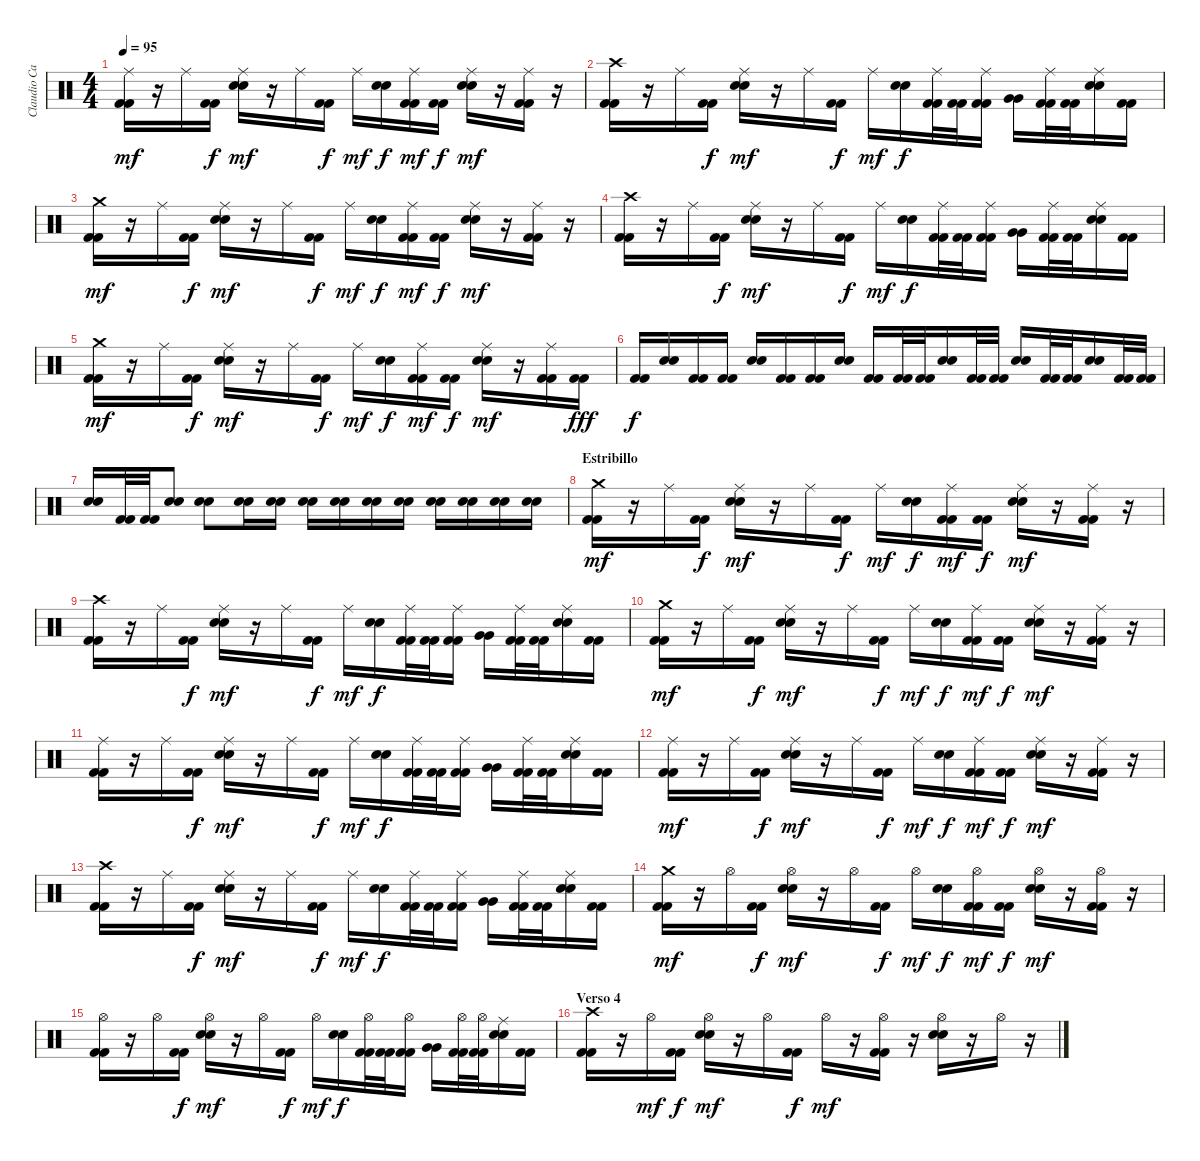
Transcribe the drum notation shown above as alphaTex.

\track ("Claudio Cardaci (bateria)" "Claudio Ca") {instrument percussion}
\staff {score}
\articulation defaults
\ts (4 4)
\tempo 95
\clef neutral
\ks c
("Ride (middle)" "Kick (hit) 2" "Kick (hit) 2").16{dy mf} r.16 "Ride (middle)".16 ("Kick (hit) 2" "Kick (hit) 2").16{dy f} ("Ride (middle)" "Snare (hit) 2" "Snare (hit) 2").16{dy mf} r.16 "Ride (middle)".16 ("Kick (hit) 2" "Kick (hit) 2").16{dy f} "Ride (middle)".16{dy mf} ("Snare (hit) 2" "Snare (hit) 2").16{dy f} ("Ride (middle)" "Kick (hit) 2" "Kick (hit) 2").16{dy mf} ("Kick (hit) 2" "Kick (hit) 2").16{dy f} ("Ride (middle)" "Snare (hit) 2" "Snare (hit) 2").16{dy mf} r.16 ("Ride (middle)" "Kick (hit) 2" "Kick (hit) 2").16 r.16 |
("Crash high (hit)" "Kick (hit) 2" "Kick (hit) 2").16 r.16 "Ride (middle)".16 ("Kick (hit) 2" "Kick (hit) 2").16{dy f} ("Ride (middle)" "Snare (hit) 2" "Snare (hit) 2").16{dy mf} r.16 "Ride (middle)".16 ("Kick (hit) 2" "Kick (hit) 2").16{dy f} "Ride (middle)".16{dy mf} ("Snare (hit) 2" "Snare (hit) 2").16{dy f} ("Ride (middle)" "Kick (hit) 2" "Kick (hit) 2").32 ("Kick (hit) 2" "Kick (hit) 2").32 ("Ride (middle)" "Kick (hit) 2" "Kick (hit) 2").16 ("Very Low Tom (hit)" "Very Low Tom (hit)").16 ("Ride (middle)" "Kick (hit) 2" "Kick (hit) 2").32 ("Kick (hit) 2" "Kick (hit) 2").32 ("Ride (middle)" "Snare (hit) 2" "Snare (hit) 2").16 ("Kick (hit) 2" "Kick (hit) 2").16 |
("Crash medium (hit)" "Kick (hit) 2" "Kick (hit) 2").16{dy mf} r.16 "Ride (middle)".16 ("Kick (hit) 2" "Kick (hit) 2").16{dy f} ("Ride (middle)" "Snare (hit) 2" "Snare (hit) 2").16{dy mf} r.16 "Ride (middle)".16 ("Kick (hit) 2" "Kick (hit) 2").16{dy f} "Ride (middle)".16{dy mf} ("Snare (hit) 2" "Snare (hit) 2").16{dy f} ("Ride (middle)" "Kick (hit) 2" "Kick (hit) 2").16{dy mf} ("Kick (hit) 2" "Kick (hit) 2").16{dy f} ("Ride (middle)" "Snare (hit) 2" "Snare (hit) 2").16{dy mf} r.16 ("Ride (middle)" "Kick (hit) 2" "Kick (hit) 2").16 r.16 |
("Crash high (hit)" "Kick (hit) 2" "Kick (hit) 2").16 r.16 "Ride (middle)".16 ("Kick (hit) 2" "Kick (hit) 2").16{dy f} ("Ride (middle)" "Snare (hit) 2" "Snare (hit) 2").16{dy mf} r.16 "Ride (middle)".16 ("Kick (hit) 2" "Kick (hit) 2").16{dy f} "Ride (middle)".16{dy mf} ("Snare (hit) 2" "Snare (hit) 2").16{dy f} ("Ride (middle)" "Kick (hit) 2" "Kick (hit) 2").32 ("Kick (hit) 2" "Kick (hit) 2").32 ("Ride (middle)" "Kick (hit) 2" "Kick (hit) 2").16 ("Very Low Tom (hit)" "Very Low Tom (hit)").16 ("Ride (middle)" "Kick (hit) 2" "Kick (hit) 2").32 ("Kick (hit) 2" "Kick (hit) 2").32 ("Ride (middle)" "Snare (hit) 2" "Snare (hit) 2").16 ("Kick (hit) 2" "Kick (hit) 2").16 |
("Crash medium (hit)" "Kick (hit) 2" "Kick (hit) 2").16{dy mf} r.16 "Ride (middle)".16 ("Kick (hit) 2" "Kick (hit) 2").16{dy f} ("Ride (middle)" "Snare (hit) 2" "Snare (hit) 2").16{dy mf} r.16 "Ride (middle)".16 ("Kick (hit) 2" "Kick (hit) 2").16{dy f} "Ride (middle)".16{dy mf} ("Snare (hit) 2" "Snare (hit) 2").16{dy f} ("Ride (middle)" "Kick (hit) 2" "Kick (hit) 2").16{dy mf} ("Kick (hit) 2" "Kick (hit) 2").16{dy f} ("Ride (middle)" "Snare (hit) 2" "Snare (hit) 2").16{dy mf} r.16 ("Ride (middle)" "Kick (hit) 2" "Kick (hit) 2").16 ("Kick (hit) 2" "Kick (hit) 2").16{dy fff} |
("Kick (hit) 2" "Kick (hit) 2").16{dy f} ("Snare (hit) 2" "Snare (hit) 2").16 ("Kick (hit) 2" "Kick (hit) 2").16 ("Kick (hit) 2" "Kick (hit) 2").16 ("Snare (hit) 2" "Snare (hit) 2").16 ("Kick (hit) 2" "Kick (hit) 2").16 ("Kick (hit) 2" "Kick (hit) 2").16 ("Snare (hit) 2" "Snare (hit) 2").16 ("Kick (hit) 2" "Kick (hit) 2").16 ("Kick (hit) 2" "Kick (hit) 2").32 ("Kick (hit) 2" "Kick (hit) 2").32 ("Snare (hit) 2" "Snare (hit) 2").16 ("Kick (hit) 2" "Kick (hit) 2").32 ("Kick (hit) 2" "Kick (hit) 2").32 ("Snare (hit) 2" "Snare (hit) 2").16 ("Kick (hit) 2" "Kick (hit) 2").32 ("Kick (hit) 2" "Kick (hit) 2").32 ("Snare (hit) 2" "Snare (hit) 2").16 ("Kick (hit) 2" "Kick (hit) 2").32 ("Kick (hit) 2" "Kick (hit) 2").32 |
("Snare (hit) 2" "Snare (hit) 2").16 ("Kick (hit) 2" "Kick (hit) 2").32 ("Kick (hit) 2" "Kick (hit) 2").32 ("Snare (hit) 2" "Snare (hit) 2").8 ("Snare (hit) 2" "Snare (hit) 2").8 ("Snare (hit) 2" "Snare (hit) 2").16 ("Snare (hit) 2" "Snare (hit) 2").16 ("Snare (hit) 2" "Snare (hit) 2").16 ("Snare (hit) 2" "Snare (hit) 2").16 ("Snare (hit) 2" "Snare (hit) 2").16 ("Snare (hit) 2" "Snare (hit) 2").16 ("Snare (hit) 2" "Snare (hit) 2").16 ("Snare (hit) 2" "Snare (hit) 2").16 ("Snare (hit) 2" "Snare (hit) 2").16 ("Snare (hit) 2" "Snare (hit) 2").16 |
\section ("" "Estribillo")
("Crash medium (hit)" "Kick (hit) 2" "Kick (hit) 2").16{dy mf} r.16 "Ride (middle)".16 ("Kick (hit) 2" "Kick (hit) 2").16{dy f} ("Ride (middle)" "Snare (hit) 2" "Snare (hit) 2").16{dy mf} r.16 "Ride (middle)".16 ("Kick (hit) 2" "Kick (hit) 2").16{dy f} "Ride (middle)".16{dy mf} ("Snare (hit) 2" "Snare (hit) 2").16{dy f} ("Ride (middle)" "Kick (hit) 2" "Kick (hit) 2").16{dy mf} ("Kick (hit) 2" "Kick (hit) 2").16{dy f} ("Ride (middle)" "Snare (hit) 2" "Snare (hit) 2").16{dy mf} r.16 ("Ride (middle)" "Kick (hit) 2" "Kick (hit) 2").16 r.16 |
("Crash high (hit)" "Kick (hit) 2" "Kick (hit) 2").16 r.16 "Ride (middle)".16 ("Kick (hit) 2" "Kick (hit) 2").16{dy f} ("Ride (middle)" "Snare (hit) 2" "Snare (hit) 2").16{dy mf} r.16 "Ride (middle)".16 ("Kick (hit) 2" "Kick (hit) 2").16{dy f} "Ride (middle)".16{dy mf} ("Snare (hit) 2" "Snare (hit) 2").16{dy f} ("Ride (middle)" "Kick (hit) 2" "Kick (hit) 2").32 ("Kick (hit) 2" "Kick (hit) 2").32 ("Ride (middle)" "Kick (hit) 2" "Kick (hit) 2").16 ("Very Low Tom (hit)" "Very Low Tom (hit)").16 ("Ride (middle)" "Kick (hit) 2" "Kick (hit) 2").32 ("Kick (hit) 2" "Kick (hit) 2").32 ("Ride (middle)" "Snare (hit) 2" "Snare (hit) 2").16 ("Kick (hit) 2" "Kick (hit) 2").16 |
("Crash medium (hit)" "Kick (hit) 2" "Kick (hit) 2").16{dy mf} r.16 "Ride (middle)".16 ("Kick (hit) 2" "Kick (hit) 2").16{dy f} ("Ride (middle)" "Snare (hit) 2" "Snare (hit) 2").16{dy mf} r.16 "Ride (middle)".16 ("Kick (hit) 2" "Kick (hit) 2").16{dy f} "Ride (middle)".16{dy mf} ("Snare (hit) 2" "Snare (hit) 2").16{dy f} ("Ride (middle)" "Kick (hit) 2" "Kick (hit) 2").16{dy mf} ("Kick (hit) 2" "Kick (hit) 2").16{dy f} ("Ride (middle)" "Snare (hit) 2" "Snare (hit) 2").16{dy mf} r.16 ("Ride (middle)" "Kick (hit) 2" "Kick (hit) 2").16 r.16 |
("Ride (middle)" "Kick (hit) 2" "Kick (hit) 2").16 r.16 "Ride (middle)".16 ("Kick (hit) 2" "Kick (hit) 2").16{dy f} ("Ride (middle)" "Snare (hit) 2" "Snare (hit) 2").16{dy mf} r.16 "Ride (middle)".16 ("Kick (hit) 2" "Kick (hit) 2").16{dy f} "Ride (middle)".16{dy mf} ("Snare (hit) 2" "Snare (hit) 2").16{dy f} ("Ride (middle)" "Kick (hit) 2" "Kick (hit) 2").32 ("Kick (hit) 2" "Kick (hit) 2").32 ("Ride (middle)" "Kick (hit) 2" "Kick (hit) 2").16 ("Very Low Tom (hit)" "Very Low Tom (hit)").16 ("Ride (middle)" "Kick (hit) 2" "Kick (hit) 2").32 ("Kick (hit) 2" "Kick (hit) 2").32 ("Ride (middle)" "Snare (hit) 2" "Snare (hit) 2").16 ("Kick (hit) 2" "Kick (hit) 2").16 |
("Ride (middle)" "Kick (hit) 2" "Kick (hit) 2").16{dy mf} r.16 "Ride (middle)".16 ("Kick (hit) 2" "Kick (hit) 2").16{dy f} ("Ride (middle)" "Snare (hit) 2" "Snare (hit) 2").16{dy mf} r.16 "Ride (middle)".16 ("Kick (hit) 2" "Kick (hit) 2").16{dy f} "Ride (middle)".16{dy mf} ("Snare (hit) 2" "Snare (hit) 2").16{dy f} ("Ride (middle)" "Kick (hit) 2" "Kick (hit) 2").16{dy mf} ("Kick (hit) 2" "Kick (hit) 2").16{dy f} ("Ride (middle)" "Snare (hit) 2" "Snare (hit) 2").16{dy mf} r.16 ("Ride (middle)" "Kick (hit) 2" "Kick (hit) 2").16 r.16 |
("Crash high (hit)" "Kick (hit) 2" "Kick (hit) 2").16 r.16 "Ride (middle)".16 ("Kick (hit) 2" "Kick (hit) 2").16{dy f} ("Ride (middle)" "Snare (hit) 2" "Snare (hit) 2").16{dy mf} r.16 "Ride (middle)".16 ("Kick (hit) 2" "Kick (hit) 2").16{dy f} "Ride (middle)".16{dy mf} ("Snare (hit) 2" "Snare (hit) 2").16{dy f} ("Ride (middle)" "Kick (hit) 2" "Kick (hit) 2").32 ("Kick (hit) 2" "Kick (hit) 2").32 ("Ride (middle)" "Kick (hit) 2" "Kick (hit) 2").16 ("Very Low Tom (hit)" "Very Low Tom (hit)").16 ("Ride (middle)" "Kick (hit) 2" "Kick (hit) 2").32 ("Kick (hit) 2" "Kick (hit) 2").32 ("Ride (middle)" "Snare (hit) 2" "Snare (hit) 2").16 ("Kick (hit) 2" "Kick (hit) 2").16 |
("Crash medium (hit)" "Kick (hit) 2" "Kick (hit) 2").16{dy mf} r.16 "Hi-Hat (open)".16 ("Kick (hit) 2" "Kick (hit) 2").16{dy f} ("Hi-Hat (open)" "Snare (hit) 2" "Snare (hit) 2").16{dy mf} r.16 "Hi-Hat (open)".16 ("Kick (hit) 2" "Kick (hit) 2").16{dy f} "Hi-Hat (open)".16{dy mf} ("Snare (hit) 2" "Snare (hit) 2").16{dy f} ("Hi-Hat (open)" "Kick (hit) 2" "Kick (hit) 2").16{dy mf} ("Kick (hit) 2" "Kick (hit) 2").16{dy f} ("Hi-Hat (open)" "Snare (hit) 2" "Snare (hit) 2").16{dy mf} r.16 ("Hi-Hat (open)" "Kick (hit) 2" "Kick (hit) 2").16 r.16 |
("Hi-Hat (open)" "Kick (hit) 2" "Kick (hit) 2").16 r.16 "Hi-Hat (open)".16 ("Kick (hit) 2" "Kick (hit) 2").16{dy f} ("Hi-Hat (open)" "Snare (hit) 2" "Snare (hit) 2").16{dy mf} r.16 "Hi-Hat (open)".16 ("Kick (hit) 2" "Kick (hit) 2").16{dy f} "Hi-Hat (open)".16{dy mf} ("Snare (hit) 2" "Snare (hit) 2").16{dy f} ("Hi-Hat (open)" "Kick (hit) 2" "Kick (hit) 2").32 ("Kick (hit) 2" "Kick (hit) 2").32 ("Hi-Hat (open)" "Kick (hit) 2" "Kick (hit) 2").16 ("Very Low Tom (hit)" "Very Low Tom (hit)").16 ("Hi-Hat (open)" "Kick (hit) 2" "Kick (hit) 2").32 ("Hi-Hat (open)" "Kick (hit) 2" "Kick (hit) 2").32 ("Ride (middle)" "Snare (hit) 2" "Snare (hit) 2").16 ("Kick (hit) 2" "Kick (hit) 2").16 |
\section ("" "Verso 4")
("Crash high (hit)" "Kick (hit) 2" "Kick (hit) 2").16 r.16 "Hi-Hat (open)".16{dy mf} ("Kick (hit) 2" "Kick (hit) 2").16{dy f} ("Hi-Hat (open)" "Snare (hit) 2" "Snare (hit) 2").16{dy mf} r.16 "Hi-Hat (open)".16 ("Kick (hit) 2" "Kick (hit) 2").16{dy f} "Hi-Hat (open)".16{dy mf} r.16 ("Hi-Hat (open)" "Kick (hit) 2" "Kick (hit) 2").16 r.16 ("Hi-Hat (open)" "Snare (hit) 2" "Snare (hit) 2").16 r.16 "Hi-Hat (open)".16 r.16
